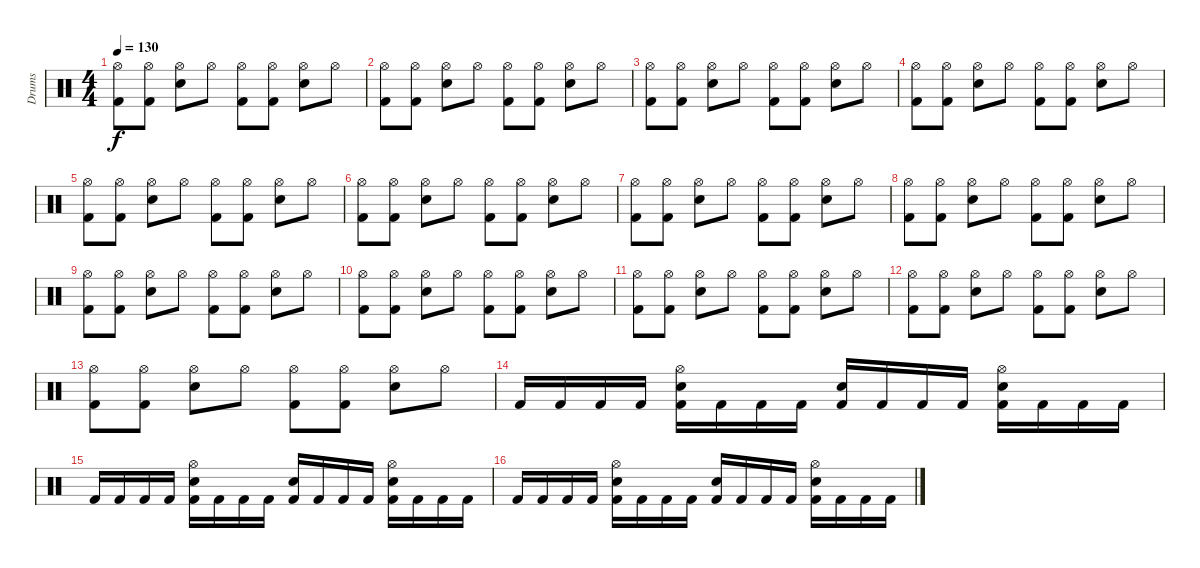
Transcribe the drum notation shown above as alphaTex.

\track ("Drums" "Drums") {instrument percussion}
\staff {score}
\articulation defaults
\ts (4 4)
\tempo 130
\clef neutral
\ks c
("Hi-Hat (open)" "Kick (hit) 2").8{dy f} ("Hi-Hat (open)" "Kick (hit) 2").8 ("Hi-Hat (open)" "Snare (hit) 2").8 "Hi-Hat (open)".8 ("Hi-Hat (open)" "Kick (hit) 2").8 ("Hi-Hat (open)" "Kick (hit) 2").8 ("Hi-Hat (open)" "Snare (hit) 2").8 "Hi-Hat (open)".8 |
("Hi-Hat (open)" "Kick (hit) 2").8 ("Hi-Hat (open)" "Kick (hit) 2").8 ("Hi-Hat (open)" "Snare (hit) 2").8 "Hi-Hat (open)".8 ("Hi-Hat (open)" "Kick (hit) 2").8 ("Hi-Hat (open)" "Kick (hit) 2").8 ("Hi-Hat (open)" "Snare (hit) 2").8 "Hi-Hat (open)".8 |
("Hi-Hat (open)" "Kick (hit) 2").8 ("Hi-Hat (open)" "Kick (hit) 2").8 ("Hi-Hat (open)" "Snare (hit) 2").8 "Hi-Hat (open)".8 ("Hi-Hat (open)" "Kick (hit) 2").8 ("Hi-Hat (open)" "Kick (hit) 2").8 ("Hi-Hat (open)" "Snare (hit) 2").8 "Hi-Hat (open)".8 |
("Hi-Hat (open)" "Kick (hit) 2").8 ("Hi-Hat (open)" "Kick (hit) 2").8 ("Hi-Hat (open)" "Snare (hit) 2").8 "Hi-Hat (open)".8 ("Hi-Hat (open)" "Kick (hit) 2").8 ("Hi-Hat (open)" "Kick (hit) 2").8 ("Hi-Hat (open)" "Snare (hit) 2").8 "Hi-Hat (open)".8 |
("Hi-Hat (open)" "Kick (hit) 2").8 ("Hi-Hat (open)" "Kick (hit) 2").8 ("Hi-Hat (open)" "Snare (hit) 2").8 "Hi-Hat (open)".8 ("Hi-Hat (open)" "Kick (hit) 2").8 ("Hi-Hat (open)" "Kick (hit) 2").8 ("Hi-Hat (open)" "Snare (hit) 2").8 "Hi-Hat (open)".8 |
("Hi-Hat (open)" "Kick (hit) 2").8 ("Hi-Hat (open)" "Kick (hit) 2").8 ("Hi-Hat (open)" "Snare (hit) 2").8 "Hi-Hat (open)".8 ("Hi-Hat (open)" "Kick (hit) 2").8 ("Hi-Hat (open)" "Kick (hit) 2").8 ("Hi-Hat (open)" "Snare (hit) 2").8 "Hi-Hat (open)".8 |
("Hi-Hat (open)" "Kick (hit) 2").8 ("Hi-Hat (open)" "Kick (hit) 2").8 ("Hi-Hat (open)" "Snare (hit) 2").8 "Hi-Hat (open)".8 ("Hi-Hat (open)" "Kick (hit) 2").8 ("Hi-Hat (open)" "Kick (hit) 2").8 ("Hi-Hat (open)" "Snare (hit) 2").8 "Hi-Hat (open)".8 |
("Hi-Hat (open)" "Kick (hit) 2").8 ("Hi-Hat (open)" "Kick (hit) 2").8 ("Hi-Hat (open)" "Snare (hit) 2").8 "Hi-Hat (open)".8 ("Hi-Hat (open)" "Kick (hit) 2").8 ("Hi-Hat (open)" "Kick (hit) 2").8 ("Hi-Hat (open)" "Snare (hit) 2").8 "Hi-Hat (open)".8 |
("Hi-Hat (open)" "Kick (hit) 2").8 ("Hi-Hat (open)" "Kick (hit) 2").8 ("Hi-Hat (open)" "Snare (hit) 2").8 "Hi-Hat (open)".8 ("Hi-Hat (open)" "Kick (hit) 2").8 ("Hi-Hat (open)" "Kick (hit) 2").8 ("Hi-Hat (open)" "Snare (hit) 2").8 "Hi-Hat (open)".8 |
("Hi-Hat (open)" "Kick (hit) 2").8 ("Hi-Hat (open)" "Kick (hit) 2").8 ("Hi-Hat (open)" "Snare (hit) 2").8 "Hi-Hat (open)".8 ("Hi-Hat (open)" "Kick (hit) 2").8 ("Hi-Hat (open)" "Kick (hit) 2").8 ("Hi-Hat (open)" "Snare (hit) 2").8 "Hi-Hat (open)".8 |
("Hi-Hat (open)" "Kick (hit) 2").8 ("Hi-Hat (open)" "Kick (hit) 2").8 ("Hi-Hat (open)" "Snare (hit) 2").8 "Hi-Hat (open)".8 ("Hi-Hat (open)" "Kick (hit) 2").8 ("Hi-Hat (open)" "Kick (hit) 2").8 ("Hi-Hat (open)" "Snare (hit) 2").8 "Hi-Hat (open)".8 |
("Hi-Hat (open)" "Kick (hit) 2").8 ("Hi-Hat (open)" "Kick (hit) 2").8 ("Hi-Hat (open)" "Snare (hit) 2").8 "Hi-Hat (open)".8 ("Hi-Hat (open)" "Kick (hit) 2").8 ("Hi-Hat (open)" "Kick (hit) 2").8 ("Hi-Hat (open)" "Snare (hit) 2").8 "Hi-Hat (open)".8 |
("Hi-Hat (open)" "Kick (hit) 2").8 ("Hi-Hat (open)" "Kick (hit) 2").8 ("Hi-Hat (open)" "Snare (hit) 2").8 "Hi-Hat (open)".8 ("Hi-Hat (open)" "Kick (hit) 2").8 ("Hi-Hat (open)" "Kick (hit) 2").8 ("Hi-Hat (open)" "Snare (hit) 2").8 "Hi-Hat (open)".8 |
"Kick (hit) 2".16 "Kick (hit) 2".16 "Kick (hit) 2".16 "Kick (hit) 2".16 ("Hi-Hat (open)" "Snare (hit) 2" "Kick (hit) 2").16 "Kick (hit) 2".16 "Kick (hit) 2".16 "Kick (hit) 2".16 ("Snare (hit) 2" "Kick (hit) 2").16 "Kick (hit) 2".16 "Kick (hit) 2".16 "Kick (hit) 2".16 ("Hi-Hat (open)" "Snare (hit) 2" "Kick (hit) 2").16 "Kick (hit) 2".16 "Kick (hit) 2".16 "Kick (hit) 2".16 |
"Kick (hit) 2".16 "Kick (hit) 2".16 "Kick (hit) 2".16 "Kick (hit) 2".16 ("Hi-Hat (open)" "Snare (hit) 2" "Kick (hit) 2").16 "Kick (hit) 2".16 "Kick (hit) 2".16 "Kick (hit) 2".16 ("Snare (hit) 2" "Kick (hit) 2").16 "Kick (hit) 2".16 "Kick (hit) 2".16 "Kick (hit) 2".16 ("Hi-Hat (open)" "Snare (hit) 2" "Kick (hit) 2").16 "Kick (hit) 2".16 "Kick (hit) 2".16 "Kick (hit) 2".16 |
"Kick (hit) 2".16 "Kick (hit) 2".16 "Kick (hit) 2".16 "Kick (hit) 2".16 ("Hi-Hat (open)" "Snare (hit) 2" "Kick (hit) 2").16 "Kick (hit) 2".16 "Kick (hit) 2".16 "Kick (hit) 2".16 ("Snare (hit) 2" "Kick (hit) 2").16 "Kick (hit) 2".16 "Kick (hit) 2".16 "Kick (hit) 2".16 ("Hi-Hat (open)" "Snare (hit) 2" "Kick (hit) 2").16 "Kick (hit) 2".16 "Kick (hit) 2".16 "Kick (hit) 2".16
